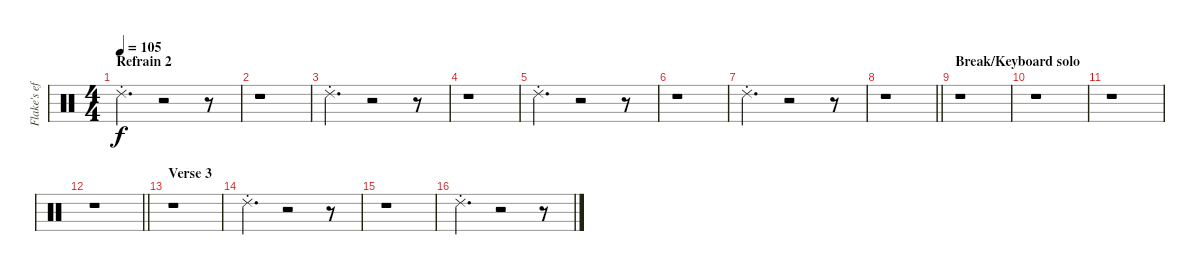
\track ("Flake's effects" "Flake's ef") {instrument percussion}
\staff {score}
\articulation defaults
\ts (4 4)
\section ("" "Refrain 2")
\tempo 105
\clef neutral
\ks c "Ride (choke) 2".4{d dy f}
r.2 r.8 |
r.1 |
"Ride (choke) 2".4{d} r.2 r.8 |
r.1 |
"Ride (choke) 2".4{d} r.2 r.8 |
r.1 |
"Ride (choke) 2".4{d} r.2 r.8 |
\barLineRight lightlight
r.1 |
\section ("" "Break/Keyboard solo")
r.1 |
r.1 |
r.1 |
\barLineRight lightlight
r.1 |
\section ("" "Verse 3")
r.1 |
"Ride (choke) 2".4{d} r.2 r.8 |
r.1 |
"Ride (choke) 2".4{d} r.2 r.8
